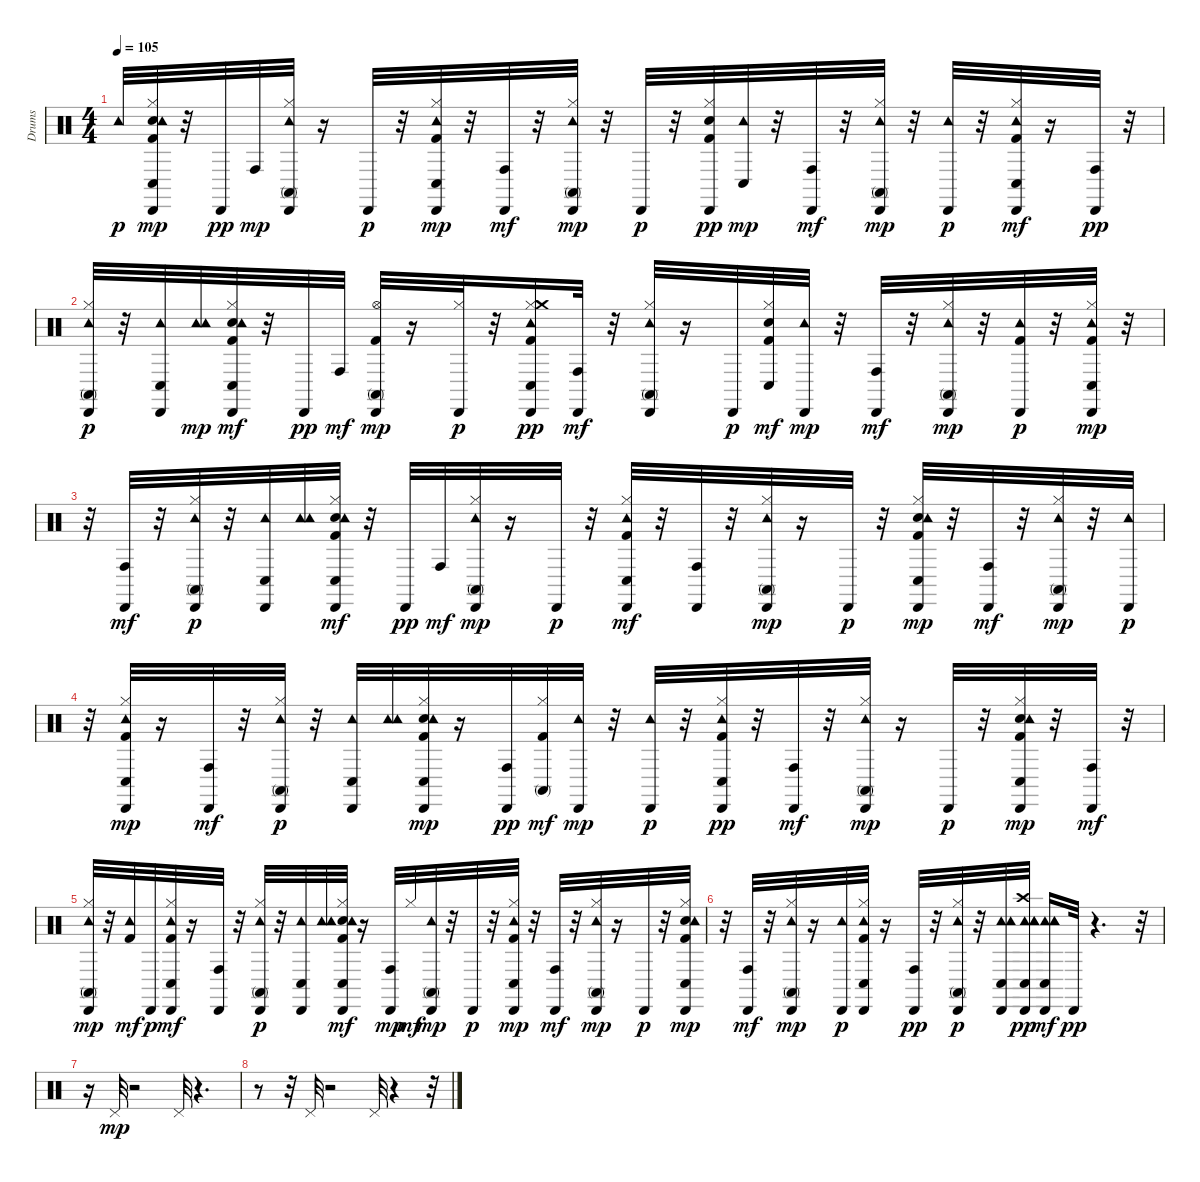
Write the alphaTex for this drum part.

\track ("Drums" "Drums") {instrument percussion}
\staff {score}
\articulation defaults
\ts (4 4)
\tempo 105
\clef neutral
\ks c "Tambourine (hit)".32{dy p}
("Conga low (hit)" "Cabasa (hit)" "Kick (hit) 2" "Snare (hit) 2" "Hi-Hat (closed)" "Tambourine (hit)").32{dy mp} r.32 "Cabasa (hit)".32{dy pp} "Conga high (hit)".32{dy mp} ("Hi-Hat (closed)" "Tambourine (hit)" "Conga high (mute)" "Cabasa (hit)").32 r.16 "Cabasa (hit)".32{dy p} r.32 ("Kick (hit) 2" "Hi-Hat (closed)" "Conga low (hit)" "Cabasa (hit)" "Tambourine (hit)").32{dy mp} r.32 ("Cabasa (hit)" "Conga high (hit)").32{dy mf} r.32 ("Conga high (mute)" "Hi-Hat (closed)" "Tambourine (hit)" "Cabasa (hit)").32{dy mp} r.32 "Cabasa (hit)".32{dy p} r.32 ("Kick (hit) 2" "Snare (hit) 2" "Hi-Hat (closed)" "Cabasa (hit)").32{dy pp} ("Tambourine (hit)" "Conga low (hit)").32{dy mp} r.32 ("Cabasa (hit)" "Conga high (hit)").32{dy mf} r.32 ("Hi-Hat (closed)" "Tambourine (hit)" "Cabasa (hit)" "Conga high (mute)").32{dy mp} r.32 ("Tambourine (hit)" "Cabasa (hit)").32{dy p} r.32 ("Kick (hit) 2" "Hi-Hat (closed)" "Tambourine (hit)" "Cabasa (hit)" "Conga low (hit)").32{dy mf} r.16 ("Conga high (hit)" "Cabasa (hit)").32{dy pp} r.32 |
("Conga high (mute)" "Hi-Hat (closed)" "Cabasa (hit)" "Tambourine (hit)").32{dy p} r.32 ("Tambourine (hit)" "Cabasa (hit)" "Conga low (hit)").32 ("Tambourine (hit)" "Tambourine (hit)").32{dy mp} ("Cabasa (hit)" "Kick (hit) 2" "Snare (hit) 2" "Hi-Hat (closed)" "Conga low (hit)" "Tambourine (hit)").32{dy mf} r.32 "Cabasa (hit)".32{dy pp} "Conga high (hit)".32{dy mf} ("Kick (hit) 2" "Hi-Hat (open)" "Conga high (mute)" "Cabasa (hit)").32{dy mp} r.16 ("Cabasa (hit)" "Hi-Hat (closed)").32{dy p} r.32 ("Kick (hit) 2" "Hi-Hat (closed)" "Crash medium (hit)" "Conga low (hit)" "Tambourine (hit)" "Cabasa (hit)").16{dy pp} ("Cabasa (hit)" "Conga high (hit)").32{dy mf} r.32 ("Hi-Hat (closed)" "Tambourine (hit)" "Cabasa (hit)" "Conga high (mute)").32 r.16 "Cabasa (hit)".32{dy p} ("Conga low (hit)" "Kick (hit) 2" "Snare (hit) 2" "Hi-Hat (closed)").32{dy mf} ("Cabasa (hit)" "Tambourine (hit)").32{dy mp} r.32 ("Cabasa (hit)" "Conga high (hit)").32{dy mf} r.32 ("Hi-Hat (closed)" "Tambourine (hit)" "Conga high (mute)" "Cabasa (hit)").32{dy mp} r.32 ("Tambourine (hit)" "Kick (hit) 2" "Cabasa (hit)").32{dy p} r.32 ("Kick (hit) 2" "Hi-Hat (closed)" "Cabasa (hit)" "Conga low (hit)" "Tambourine (hit)").32{dy mp} r.32 |
r.32 ("Cabasa (hit)" "Conga high (hit)").32{dy mf} r.32 ("Hi-Hat (closed)" "Cabasa (hit)" "Tambourine (hit)" "Conga high (mute)").32{dy p} r.32 ("Tambourine (hit)" "Conga low (hit)" "Cabasa (hit)").32 ("Tambourine (hit)" "Tambourine (hit)").32 ("Cabasa (hit)" "Kick (hit) 2" "Snare (hit) 2" "Hi-Hat (closed)" "Tambourine (hit)" "Conga low (hit)").32{dy mf} r.32 "Cabasa (hit)".32{dy pp} "Conga high (hit)".32{dy mf} ("Hi-Hat (closed)" "Conga high (mute)" "Tambourine (hit)" "Cabasa (hit)").32{dy mp} r.16 "Cabasa (hit)".32{dy p} r.32 ("Tambourine (hit)" "Kick (hit) 2" "Hi-Hat (closed)" "Cabasa (hit)" "Conga low (hit)").32{dy mf} r.32 ("Cabasa (hit)" "Conga high (hit)").32 r.32 ("Hi-Hat (closed)" "Tambourine (hit)" "Conga high (mute)" "Cabasa (hit)").32{dy mp} r.16 "Cabasa (hit)".32{dy p} r.32 ("Kick (hit) 2" "Snare (hit) 2" "Hi-Hat (closed)" "Conga low (hit)" "Cabasa (hit)" "Tambourine (hit)").32{dy mp} r.32 ("Cabasa (hit)" "Conga high (hit)").32{dy mf} r.32 ("Conga high (mute)" "Hi-Hat (closed)" "Tambourine (hit)" "Cabasa (hit)").32{dy mp} r.32 ("Tambourine (hit)" "Cabasa (hit)").32{dy p} |
r.32 ("Kick (hit) 2" "Hi-Hat (closed)" "Tambourine (hit)" "Cabasa (hit)" "Conga low (hit)").32{dy mp} r.16 ("Cabasa (hit)" "Conga high (hit)").32{dy mf} r.32 ("Hi-Hat (closed)" "Cabasa (hit)" "Conga high (mute)" "Tambourine (hit)").32{dy p} r.32 ("Tambourine (hit)" "Conga low (hit)" "Cabasa (hit)").32 ("Tambourine (hit)" "Tambourine (hit)").32 ("Cabasa (hit)" "Kick (hit) 2" "Snare (hit) 2" "Hi-Hat (closed)" "Tambourine (hit)" "Conga low (hit)").32{dy mp} r.16 ("Conga high (hit)" "Cabasa (hit)").32{dy pp} ("Conga high (mute)" "Kick (hit) 2" "Hi-Hat (closed)").32{dy mf} ("Tambourine (hit)" "Cabasa (hit)").32{dy mp} r.32 ("Tambourine (hit)" "Cabasa (hit)").32{dy p} r.32 ("Conga low (hit)" "Kick (hit) 2" "Hi-Hat (closed)" "Tambourine (hit)" "Cabasa (hit)").32{dy pp} r.32 ("Cabasa (hit)" "Conga high (hit)").32{dy mf} r.32 ("Hi-Hat (closed)" "Tambourine (hit)" "Conga high (mute)" "Cabasa (hit)").32{dy mp} r.16 "Cabasa (hit)".32{dy p} r.32 ("Kick (hit) 2" "Snare (hit) 2" "Hi-Hat (closed)" "Conga low (hit)" "Cabasa (hit)" "Tambourine (hit)").32{dy mp} r.32 ("Cabasa (hit)" "Conga high (hit)").32{dy mf} r.32 |
("Tambourine (hit)" "Hi-Hat (closed)" "Cabasa (hit)" "Conga high (mute)").32{dy mp} r.32 ("Tambourine (hit)" "Kick (hit) 2").32{dy mf} "Cabasa (hit)".32{dy p} ("Kick (hit) 2" "Hi-Hat (closed)" "Cabasa (hit)" "Tambourine (hit)" "Conga low (hit)").32{dy mf} r.16 ("Cabasa (hit)" "Conga high (hit)").32 r.32 ("Hi-Hat (closed)" "Cabasa (hit)" "Conga high (mute)" "Tambourine (hit)").32{dy p} r.32 ("Tambourine (hit)" "Cabasa (hit)" "Conga low (hit)").32 ("Tambourine (hit)" "Tambourine (hit)").32 ("Cabasa (hit)" "Kick (hit) 2" "Snare (hit) 2" "Hi-Hat (closed)" "Tambourine (hit)" "Conga low (hit)").32{dy mf} r.16 ("Cabasa (hit)" "Conga high (hit)").32{dy mp} "Hi-Hat (closed)".32{dy mf} ("Tambourine (hit)" "Conga high (mute)" "Cabasa (hit)").32{dy mp} r.32 "Cabasa (hit)".32{dy p} r.32 ("Kick (hit) 2" "Hi-Hat (closed)" "Conga low (hit)" "Cabasa (hit)" "Tambourine (hit)").32{dy mp} r.32 ("Cabasa (hit)" "Conga high (hit)").32{dy mf} r.32 ("Conga high (mute)" "Hi-Hat (closed)" "Tambourine (hit)" "Cabasa (hit)").32{dy mp} r.16 "Cabasa (hit)".32{dy p} r.32 ("Kick (hit) 2" "Snare (hit) 2" "Hi-Hat (closed)" "Cabasa (hit)" "Conga low (hit)" "Tambourine (hit)").32{dy mp} |
r.32 ("Cabasa (hit)" "Conga high (hit)").32{dy mf} r.32 ("Hi-Hat (closed)" "Tambourine (hit)" "Cabasa (hit)" "Conga high (mute)").32{dy mp} r.16 ("Tambourine (hit)" "Cabasa (hit)").32{dy p} ("Conga low (hit)" "Kick (hit) 2" "Hi-Hat (closed)" "Tambourine (hit)" "Cabasa (hit)").32 r.16 ("Conga high (hit)" "Cabasa (hit)").32{dy pp} r.32 ("Conga high (mute)" "Hi-Hat (closed)" "Cabasa (hit)" "Tambourine (hit)").32{dy p} r.32 ("Tambourine (hit)" "Tambourine (hit)" "Cabasa (hit)" "Conga low (hit)").32 ("Tambourine (hit)" "Tambourine (hit)" "Crash high (hit)" "Tambourine (hit)" "Conga low (hit)" "Cabasa (hit)").32{dy pp} ("Tambourine (hit)" "Tambourine (hit)" "Conga low (hit)" "Cabasa (hit)" "Tambourine (hit)").16{dy mf} "Cabasa (hit)".32{dy pp} r.4{d} r.32 |
r.16 "Pedal Hi-Hat (hit)".32{dy mp} r.2 "Pedal Hi-Hat (hit)".32 r.4{d} |
r.8 r.32 "Pedal Hi-Hat (hit)".32 r.2 "Pedal Hi-Hat (hit)".32 r.4 r.32
